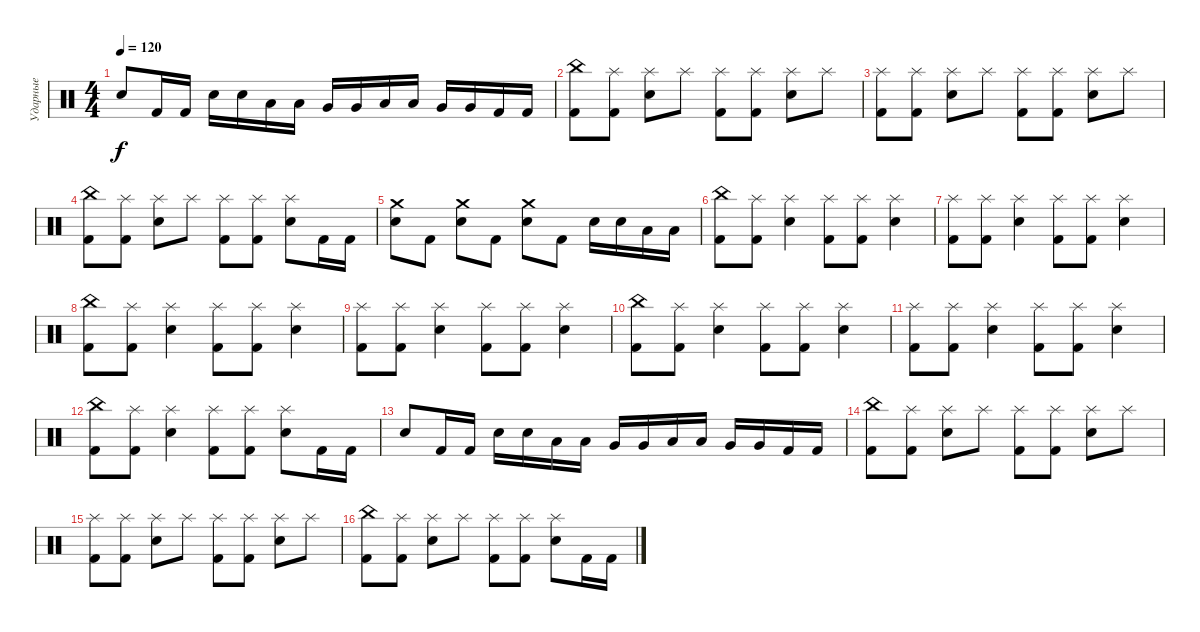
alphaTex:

\track ("Ударные" "Ударные") {instrument percussion}
\staff {score}
\articulation defaults
\ts (4 4)
\tempo 120
\clef neutral
\ks c "Electric Snare (hit)".8{dy f} "Kick (hit) 2".16 "Kick (hit) 2".16 "Electric Snare (hit)".16 "Electric Snare (hit)".16 "Low Tom (hit)".16 "Low Tom (hit)".16 "Very Low Tom (hit)".16 "Very Low Tom (hit)".16 "Low Tom (hit)".16 "Low Tom (hit)".16 "Very Low Tom (hit)".16 "Very Low Tom (hit)".16 "Kick (hit) 2".16 "Kick (hit) 2".16
|
("China (hit)" "Kick (hit) 2").8 ("Splash (hit)" "Kick (hit) 2").8 ("Splash (hit)" "Electric Snare (hit)").8 "Splash (hit)".8 ("Splash (hit)" "Kick (hit) 2").8 ("Splash (hit)" "Kick (hit) 2").8 ("Splash (hit)" "Electric Snare (hit)").8 "Splash (hit)".8 |
("Splash (hit)" "Kick (hit) 2").8 ("Splash (hit)" "Kick (hit) 2").8 ("Splash (hit)" "Electric Snare (hit)").8 "Splash (hit)".8 ("Splash (hit)" "Kick (hit) 2").8 ("Splash (hit)" "Kick (hit) 2").8 ("Splash (hit)" "Electric Snare (hit)").8 "Splash (hit)".8 |
("China (hit)" "Kick (hit) 2").8 ("Splash (hit)" "Kick (hit) 2").8 ("Splash (hit)" "Electric Snare (hit)").8 "Splash (hit)".8 ("Splash (hit)" "Kick (hit) 2").8 ("Splash (hit)" "Kick (hit) 2").8 ("Splash (hit)" "Electric Snare (hit)").8 "Kick (hit) 2".16 "Kick (hit) 2".16 |
("Crash medium (hit)" "Electric Snare (hit)").8 "Kick (hit) 2".8 ("Crash medium (hit)" "Electric Snare (hit)").8 "Kick (hit) 2".8 ("Crash medium (hit)" "Electric Snare (hit)").8 "Kick (hit) 2".8 "Electric Snare (hit)".16 "Electric Snare (hit)".16 "Low Tom (hit)".16 "Low Tom (hit)".16 |
("China (hit)" "Kick (hit) 2").8 ("Splash (hit)" "Kick (hit) 2").8 ("Splash (hit)" "Electric Snare (hit)").4 ("Splash (hit)" "Kick (hit) 2").8 ("Splash (hit)" "Kick (hit) 2").8 ("Splash (hit)" "Electric Snare (hit)").4 |
("Splash (hit)" "Kick (hit) 2").8 ("Splash (hit)" "Kick (hit) 2").8 ("Splash (hit)" "Electric Snare (hit)").4 ("Splash (hit)" "Kick (hit) 2").8 ("Splash (hit)" "Kick (hit) 2").8 ("Splash (hit)" "Electric Snare (hit)").4 |
("China (hit)" "Kick (hit) 2").8 ("Splash (hit)" "Kick (hit) 2").8 ("Splash (hit)" "Electric Snare (hit)").4 ("Splash (hit)" "Kick (hit) 2").8 ("Splash (hit)" "Kick (hit) 2").8 ("Splash (hit)" "Electric Snare (hit)").4 |
("Splash (hit)" "Kick (hit) 2").8 ("Splash (hit)" "Kick (hit) 2").8 ("Splash (hit)" "Electric Snare (hit)").4 ("Splash (hit)" "Kick (hit) 2").8 ("Splash (hit)" "Kick (hit) 2").8 ("Splash (hit)" "Electric Snare (hit)").4 |
("China (hit)" "Kick (hit) 2").8 ("Splash (hit)" "Kick (hit) 2").8 ("Splash (hit)" "Electric Snare (hit)").4 ("Splash (hit)" "Kick (hit) 2").8 ("Splash (hit)" "Kick (hit) 2").8 ("Splash (hit)" "Electric Snare (hit)").4 |
("Splash (hit)" "Kick (hit) 2").8 ("Splash (hit)" "Kick (hit) 2").8 ("Splash (hit)" "Electric Snare (hit)").4 ("Splash (hit)" "Kick (hit) 2").8 ("Splash (hit)" "Kick (hit) 2").8 ("Splash (hit)" "Electric Snare (hit)").4 |
("China (hit)" "Kick (hit) 2").8 ("Splash (hit)" "Kick (hit) 2").8 ("Splash (hit)" "Electric Snare (hit)").4 ("Splash (hit)" "Kick (hit) 2").8 ("Splash (hit)" "Kick (hit) 2").8 ("Splash (hit)" "Electric Snare (hit)").8 "Kick (hit) 2".16 "Kick (hit) 2".16 |
"Electric Snare (hit)".8 "Kick (hit) 2".16 "Kick (hit) 2".16 "Electric Snare (hit)".16 "Electric Snare (hit)".16 "Low Tom (hit)".16 "Low Tom (hit)".16 "Very Low Tom (hit)".16 "Very Low Tom (hit)".16 "Low Tom (hit)".16 "Low Tom (hit)".16 "Very Low Tom (hit)".16 "Very Low Tom (hit)".16 "Kick (hit) 2".16 "Kick (hit) 2".16 |
("China (hit)" "Kick (hit) 2").8 ("Splash (hit)" "Kick (hit) 2").8 ("Splash (hit)" "Electric Snare (hit)").8 "Splash (hit)".8 ("Splash (hit)" "Kick (hit) 2").8 ("Splash (hit)" "Kick (hit) 2").8 ("Splash (hit)" "Electric Snare (hit)").8 "Splash (hit)".8 |
("Splash (hit)" "Kick (hit) 2").8 ("Splash (hit)" "Kick (hit) 2").8 ("Splash (hit)" "Electric Snare (hit)").8 "Splash (hit)".8 ("Splash (hit)" "Kick (hit) 2").8 ("Splash (hit)" "Kick (hit) 2").8 ("Splash (hit)" "Electric Snare (hit)").8 "Splash (hit)".8 |
("China (hit)" "Kick (hit) 2").8 ("Splash (hit)" "Kick (hit) 2").8 ("Splash (hit)" "Electric Snare (hit)").8 "Splash (hit)".8 ("Splash (hit)" "Kick (hit) 2").8 ("Splash (hit)" "Kick (hit) 2").8 ("Splash (hit)" "Electric Snare (hit)").8 "Kick (hit) 2".16 "Kick (hit) 2".16
